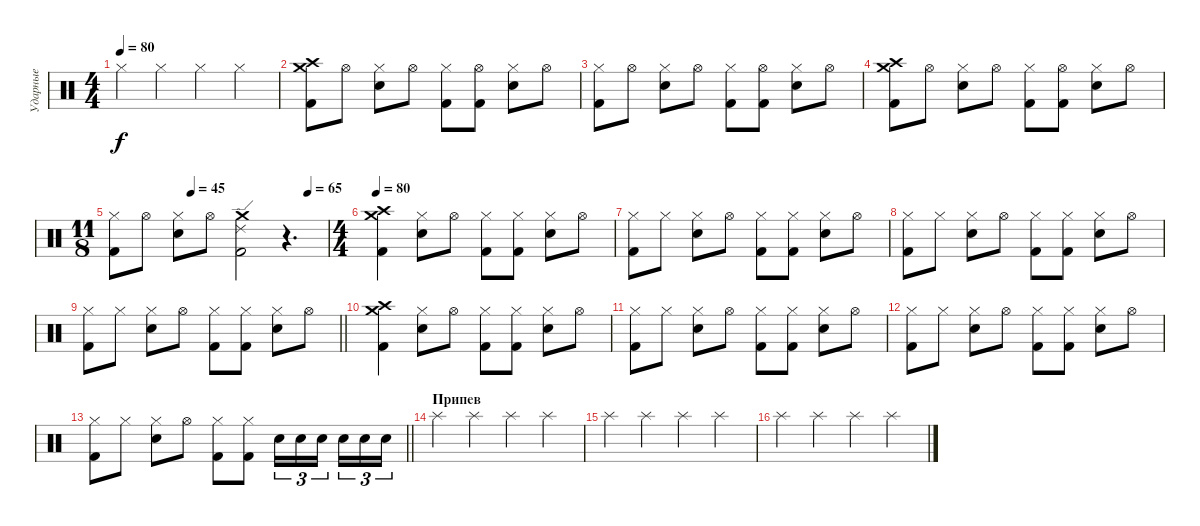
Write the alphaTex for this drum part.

\track ("Ударные" "Ударные") {instrument percussion}
\staff {score}
\articulation defaults
\ts (4 4)
\tempo 80
\clef neutral
\ks c "Hi-Hat (closed)".4{dy f} "Hi-Hat (closed)".4 "Hi-Hat (closed)".4 "Hi-Hat (closed)".4
|
("Crash medium (hit)" "Kick (hit) 2" "Crash high (hit)").8 "Hi-Hat (open)".8 ("Hi-Hat (closed)" "Snare (hit) 2").8 "Hi-Hat (open)".8 ("Hi-Hat (closed)" "Kick (hit) 2").8 ("Hi-Hat (open)" "Kick (hit) 2").8 ("Hi-Hat (closed)" "Snare (hit) 2").8 "Hi-Hat (open)".8 |
("Hi-Hat (closed)" "Kick (hit) 2").8 "Hi-Hat (open)".8 ("Hi-Hat (closed)" "Snare (hit) 2").8 "Hi-Hat (open)".8 ("Hi-Hat (closed)" "Kick (hit) 2").8 ("Hi-Hat (open)" "Kick (hit) 2").8 ("Hi-Hat (closed)" "Snare (hit) 2").8 "Hi-Hat (open)".8 |
("Crash medium (hit)" "Kick (hit) 2" "Crash high (hit)").8 "Hi-Hat (open)".8 ("Hi-Hat (closed)" "Snare (hit) 2").8 "Hi-Hat (open)".8 ("Hi-Hat (closed)" "Kick (hit) 2").8 ("Hi-Hat (open)" "Kick (hit) 2").8 ("Hi-Hat (closed)" "Snare (hit) 2").8 "Hi-Hat (open)".8 |
\ts (11 8)
\tempo (45 0.36363636363636365)
\tempo (65 0.9090909090909091)
("Hi-Hat (closed)" "Kick (hit) 2").8 "Hi-Hat (open)".8 ("Hi-Hat (closed)" "Snare (hit) 2").8 "Hi-Hat (open)".8 ("Crash medium (hit)" "Ride (edge) 2" "Kick (hit) 2").2 r.4{d} |
\ts (4 4)
\tempo 80
("Crash medium (hit)" "Kick (hit) 2" "Crash high (hit)").4 ("Hi-Hat (closed)" "Snare (hit) 2").8 "Hi-Hat (open)".8 ("Hi-Hat (closed)" "Kick (hit) 2").8 ("Hi-Hat (closed)" "Kick (hit) 2").8 ("Hi-Hat (closed)" "Snare (hit) 2").8 "Hi-Hat (open)".8 |
("Hi-Hat (closed)" "Kick (hit) 2").8 "Hi-Hat (closed)".8 ("Hi-Hat (closed)" "Snare (hit) 2").8 "Hi-Hat (open)".8 ("Hi-Hat (closed)" "Kick (hit) 2").8 ("Hi-Hat (closed)" "Kick (hit) 2").8 ("Hi-Hat (closed)" "Snare (hit) 2").8 "Hi-Hat (open)".8 |
("Hi-Hat (closed)" "Kick (hit) 2").8 "Hi-Hat (closed)".8 ("Hi-Hat (closed)" "Snare (hit) 2").8 "Hi-Hat (open)".8 ("Hi-Hat (closed)" "Kick (hit) 2").8 ("Hi-Hat (closed)" "Kick (hit) 2").8 ("Hi-Hat (closed)" "Snare (hit) 2").8 "Hi-Hat (open)".8 |
\barLineRight lightlight
("Hi-Hat (closed)" "Kick (hit) 2").8 "Hi-Hat (closed)".8 ("Hi-Hat (closed)" "Snare (hit) 2").8 "Hi-Hat (open)".8 ("Hi-Hat (closed)" "Kick (hit) 2").8 ("Hi-Hat (closed)" "Kick (hit) 2").8 ("Hi-Hat (closed)" "Snare (hit) 2").8 "Hi-Hat (open)".8 |
("Crash medium (hit)" "Kick (hit) 2" "Crash high (hit)").4 ("Hi-Hat (closed)" "Snare (hit) 2").8 "Hi-Hat (open)".8 ("Hi-Hat (closed)" "Kick (hit) 2").8 ("Hi-Hat (closed)" "Kick (hit) 2").8 ("Hi-Hat (closed)" "Snare (hit) 2").8 "Hi-Hat (open)".8 |
("Hi-Hat (closed)" "Kick (hit) 2").8 "Hi-Hat (closed)".8 ("Hi-Hat (closed)" "Snare (hit) 2").8 "Hi-Hat (open)".8 ("Hi-Hat (closed)" "Kick (hit) 2").8 ("Hi-Hat (closed)" "Kick (hit) 2").8 ("Hi-Hat (closed)" "Snare (hit) 2").8 "Hi-Hat (open)".8 |
("Hi-Hat (closed)" "Kick (hit) 2").8 "Hi-Hat (closed)".8 ("Hi-Hat (closed)" "Snare (hit) 2").8 "Hi-Hat (open)".8 ("Hi-Hat (closed)" "Kick (hit) 2").8 ("Hi-Hat (closed)" "Kick (hit) 2").8 ("Hi-Hat (closed)" "Snare (hit) 2").8 "Hi-Hat (open)".8 |
\barLineRight lightlight
("Hi-Hat (closed)" "Kick (hit) 2").8 "Hi-Hat (closed)".8 ("Hi-Hat (closed)" "Snare (hit) 2").8 "Hi-Hat (open)".8 ("Hi-Hat (closed)" "Kick (hit) 2").8 ("Hi-Hat (closed)" "Kick (hit) 2").8 "Snare (hit) 2".16{tu (3 2)} "Snare (hit) 2".16{tu (3 2)} "Snare (hit) 2".16{tu (3 2) beam splitsecondary} "Snare (hit) 2".16{tu (3 2)} "Snare (hit) 2".16{tu (3 2)} "Snare (hit) 2".16{tu (3 2)} |
\section ("" "Припев")
"Splash (hit)".4 "Splash (hit)".4 "Splash (hit)".4 "Splash (hit)".4 |
"Splash (hit)".4 "Splash (hit)".4 "Splash (hit)".4 "Splash (hit)".4 |
"Splash (hit)".4 "Splash (hit)".4 "Splash (hit)".4 "Splash (hit)".4
